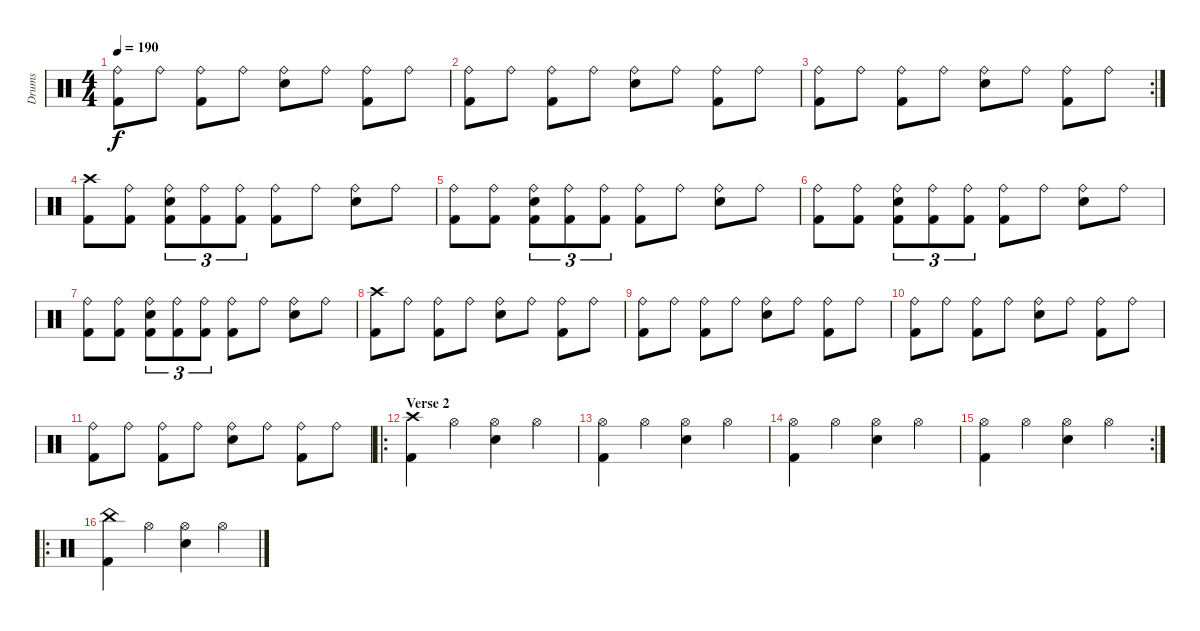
\track ("Drums" "Drums") {instrument percussion}
\staff {score}
\articulation defaults
\ts (4 4)
\tempo 190
\clef neutral
\ks c
("Ride (bell)" "Kick (hit) 2").8{dy f} "Ride (bell)".8 ("Ride (bell)" "Kick (hit) 2").8 "Ride (bell)".8 ("Ride (bell)" "Electric Snare (hit)").8 "Ride (bell)".8 ("Ride (bell)" "Kick (hit) 2").8 "Ride (bell)".8 |
("Ride (bell)" "Kick (hit) 2").8 "Ride (bell)".8 ("Ride (bell)" "Kick (hit) 2").8 "Ride (bell)".8 ("Ride (bell)" "Electric Snare (hit)").8 "Ride (bell)".8 ("Ride (bell)" "Kick (hit) 2").8 "Ride (bell)".8 |
\rc 2
("Ride (bell)" "Kick (hit) 2").8 "Ride (bell)".8 ("Ride (bell)" "Kick (hit) 2").8 "Ride (bell)".8 ("Ride (bell)" "Electric Snare (hit)").8 "Ride (bell)".8 ("Ride (bell)" "Kick (hit) 2").8 "Ride (bell)".8 |
("Crash high (hit)" "Kick (hit) 2").8 ("Ride (bell)" "Kick (hit) 2").8 ("Ride (bell)" "Kick (hit) 2" "Electric Snare (hit)").8{tu (3 2)} ("Ride (bell)" "Kick (hit) 2").8{tu (3 2)} ("Ride (bell)" "Kick (hit) 2").8{tu (3 2)} ("Ride (bell)" "Kick (hit) 2").8 "Ride (bell)".8 ("Ride (bell)" "Electric Snare (hit)").8 "Ride (bell)".8 |
("Ride (bell)" "Kick (hit) 2").8 ("Ride (bell)" "Kick (hit) 2").8 ("Ride (bell)" "Kick (hit) 2" "Electric Snare (hit)").8{tu (3 2)} ("Ride (bell)" "Kick (hit) 2").8{tu (3 2)} ("Ride (bell)" "Kick (hit) 2").8{tu (3 2)} ("Ride (bell)" "Kick (hit) 2").8 "Ride (bell)".8 ("Ride (bell)" "Electric Snare (hit)").8 "Ride (bell)".8 |
("Ride (bell)" "Kick (hit) 2").8 ("Ride (bell)" "Kick (hit) 2").8 ("Ride (bell)" "Kick (hit) 2" "Electric Snare (hit)").8{tu (3 2)} ("Ride (bell)" "Kick (hit) 2").8{tu (3 2)} ("Ride (bell)" "Kick (hit) 2").8{tu (3 2)} ("Ride (bell)" "Kick (hit) 2").8 "Ride (bell)".8 ("Ride (bell)" "Electric Snare (hit)").8 "Ride (bell)".8 |
("Ride (bell)" "Kick (hit) 2").8 ("Ride (bell)" "Kick (hit) 2").8 ("Ride (bell)" "Kick (hit) 2" "Electric Snare (hit)").8{tu (3 2)} ("Ride (bell)" "Kick (hit) 2").8{tu (3 2)} ("Ride (bell)" "Kick (hit) 2").8{tu (3 2)} ("Ride (bell)" "Kick (hit) 2").8 "Ride (bell)".8 ("Ride (bell)" "Electric Snare (hit)").8 "Ride (bell)".8 |
("Crash high (hit)" "Kick (hit) 2").8 "Ride (bell)".8 ("Ride (bell)" "Kick (hit) 2").8 "Ride (bell)".8 ("Ride (bell)" "Electric Snare (hit)").8 "Ride (bell)".8 ("Ride (bell)" "Kick (hit) 2").8 "Ride (bell)".8 |
("Ride (bell)" "Kick (hit) 2").8 "Ride (bell)".8 ("Ride (bell)" "Kick (hit) 2").8 "Ride (bell)".8 ("Ride (bell)" "Electric Snare (hit)").8 "Ride (bell)".8 ("Ride (bell)" "Kick (hit) 2").8 "Ride (bell)".8 |
("Ride (bell)" "Kick (hit) 2").8 "Ride (bell)".8 ("Ride (bell)" "Kick (hit) 2").8 "Ride (bell)".8 ("Ride (bell)" "Electric Snare (hit)").8 "Ride (bell)".8 ("Ride (bell)" "Kick (hit) 2").8 "Ride (bell)".8 |
("Ride (bell)" "Kick (hit) 2").8 "Ride (bell)".8 ("Ride (bell)" "Kick (hit) 2").8 "Ride (bell)".8 ("Ride (bell)" "Electric Snare (hit)").8 "Ride (bell)".8 ("Ride (bell)" "Kick (hit) 2").8 "Ride (bell)".8 |
\ro
\section ("" "Verse 2")
("Crash high (hit)" "Kick (hit) 2").4 "Hi-Hat (open)".4 ("Hi-Hat (open)" "Electric Snare (hit)").4 "Hi-Hat (open)".4 |
("Hi-Hat (open)" "Kick (hit) 2").4 "Hi-Hat (open)".4 ("Hi-Hat (open)" "Electric Snare (hit)").4 "Hi-Hat (open)".4 |
("Hi-Hat (open)" "Kick (hit) 2").4 "Hi-Hat (open)".4 ("Hi-Hat (open)" "Electric Snare (hit)").4 "Hi-Hat (open)".4 |
\rc 2
("Hi-Hat (open)" "Kick (hit) 2").4 "Hi-Hat (open)".4 ("Hi-Hat (open)" "Electric Snare (hit)").4 "Hi-Hat (open)".4 |
\ro
("China (hit)" "Kick (hit) 2").4 "Hi-Hat (open)".4 ("Hi-Hat (open)" "Electric Snare (hit)").4 "Hi-Hat (open)".4
